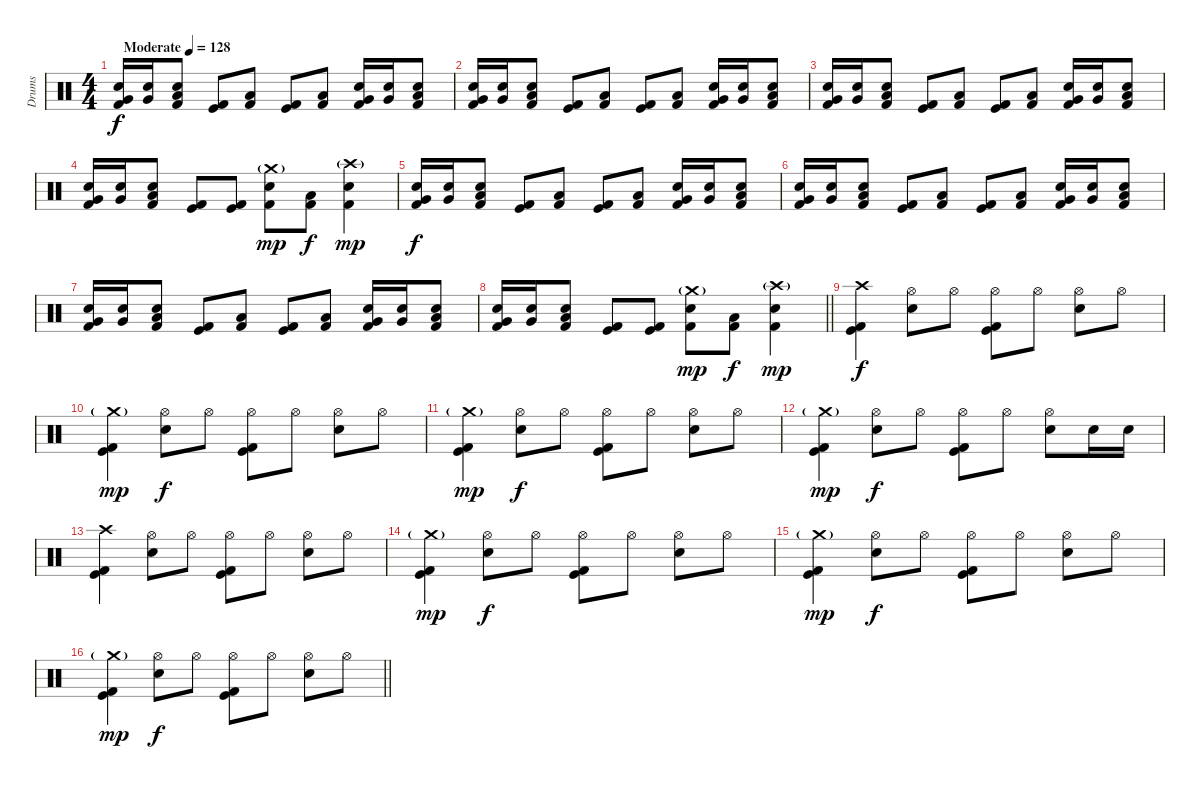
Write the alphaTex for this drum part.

\track ("Drums" "Drums") {instrument percussion}
\staff {score}
\articulation defaults
\ts (4 4)
\tempo (128 "Moderate")
\clef neutral
\ks c
("Kick (hit) 2" "Electric Snare (hit)" "Very Low Tom (hit)").16{dy f} ("Electric Snare (hit)" "Very Low Tom (hit)").16 ("Kick (hit) 2" "Electric Snare (hit)" "Low Floor Tom (hit)").8 ("Kick (hit) 2" "Kick (hit)").8 ("Kick (hit) 2" "Low Floor Tom (hit)").8 ("Kick (hit) 2" "Kick (hit)").8 ("Kick (hit) 2" "Low Floor Tom (hit)").8 ("Kick (hit) 2" "Electric Snare (hit)" "Very Low Tom (hit)").16 ("Electric Snare (hit)" "Very Low Tom (hit)").16 ("Kick (hit) 2" "Electric Snare (hit)" "Low Floor Tom (hit)").8 |
("Kick (hit) 2" "Electric Snare (hit)" "Very Low Tom (hit)").16 ("Electric Snare (hit)" "Very Low Tom (hit)").16 ("Kick (hit) 2" "Electric Snare (hit)" "Low Floor Tom (hit)").8 ("Kick (hit) 2" "Kick (hit)").8 ("Kick (hit) 2" "Low Floor Tom (hit)").8 ("Kick (hit) 2" "Kick (hit)").8 ("Kick (hit) 2" "Low Floor Tom (hit)").8 ("Kick (hit) 2" "Electric Snare (hit)" "Very Low Tom (hit)").16 ("Electric Snare (hit)" "Very Low Tom (hit)").16 ("Kick (hit) 2" "Electric Snare (hit)" "Low Floor Tom (hit)").8 |
("Kick (hit) 2" "Electric Snare (hit)" "Very Low Tom (hit)").16 ("Electric Snare (hit)" "Very Low Tom (hit)").16 ("Kick (hit) 2" "Electric Snare (hit)" "Low Floor Tom (hit)").8 ("Kick (hit) 2" "Kick (hit)").8 ("Kick (hit) 2" "Low Floor Tom (hit)").8 ("Kick (hit) 2" "Kick (hit)").8 ("Kick (hit) 2" "Low Floor Tom (hit)").8 ("Kick (hit) 2" "Electric Snare (hit)" "Very Low Tom (hit)").16 ("Electric Snare (hit)" "Very Low Tom (hit)").16 ("Kick (hit) 2" "Electric Snare (hit)" "Low Floor Tom (hit)").8 |
("Kick (hit) 2" "Electric Snare (hit)" "Very Low Tom (hit)").16 ("Electric Snare (hit)" "Very Low Tom (hit)").16 ("Kick (hit) 2" "Electric Snare (hit)" "Low Floor Tom (hit)").8 ("Kick (hit) 2" "Kick (hit)").8 ("Kick (hit) 2" "Kick (hit)").8 ("Crash medium (hit)"{g} "Kick (hit) 2" "Electric Snare (hit)").8{dy mp} ("Kick (hit) 2" "Low Floor Tom (hit)").8{dy f} ("Crash high (hit)"{g} "Kick (hit) 2" "Electric Snare (hit)").4{dy mp} |
("Kick (hit) 2" "Electric Snare (hit)" "Very Low Tom (hit)").16{dy f} ("Electric Snare (hit)" "Very Low Tom (hit)").16 ("Kick (hit) 2" "Electric Snare (hit)" "Low Floor Tom (hit)").8 ("Kick (hit) 2" "Kick (hit)").8 ("Kick (hit) 2" "Low Floor Tom (hit)").8 ("Kick (hit) 2" "Kick (hit)").8 ("Kick (hit) 2" "Low Floor Tom (hit)").8 ("Kick (hit) 2" "Electric Snare (hit)" "Very Low Tom (hit)").16 ("Electric Snare (hit)" "Very Low Tom (hit)").16 ("Kick (hit) 2" "Electric Snare (hit)" "Low Floor Tom (hit)").8 |
("Kick (hit) 2" "Electric Snare (hit)" "Very Low Tom (hit)").16 ("Electric Snare (hit)" "Very Low Tom (hit)").16 ("Kick (hit) 2" "Electric Snare (hit)" "Low Floor Tom (hit)").8 ("Kick (hit) 2" "Kick (hit)").8 ("Kick (hit) 2" "Low Floor Tom (hit)").8 ("Kick (hit) 2" "Kick (hit)").8 ("Kick (hit) 2" "Low Floor Tom (hit)").8 ("Kick (hit) 2" "Electric Snare (hit)" "Very Low Tom (hit)").16 ("Electric Snare (hit)" "Very Low Tom (hit)").16 ("Kick (hit) 2" "Electric Snare (hit)" "Low Floor Tom (hit)").8 |
("Kick (hit) 2" "Electric Snare (hit)" "Very Low Tom (hit)").16 ("Electric Snare (hit)" "Very Low Tom (hit)").16 ("Kick (hit) 2" "Electric Snare (hit)" "Low Floor Tom (hit)").8 ("Kick (hit) 2" "Kick (hit)").8 ("Kick (hit) 2" "Low Floor Tom (hit)").8 ("Kick (hit) 2" "Kick (hit)").8 ("Kick (hit) 2" "Low Floor Tom (hit)").8 ("Kick (hit) 2" "Electric Snare (hit)" "Very Low Tom (hit)").16 ("Electric Snare (hit)" "Very Low Tom (hit)").16 ("Kick (hit) 2" "Electric Snare (hit)" "Low Floor Tom (hit)").8 |
\barLineRight lightlight
("Kick (hit) 2" "Electric Snare (hit)" "Very Low Tom (hit)").16 ("Electric Snare (hit)" "Very Low Tom (hit)").16 ("Kick (hit) 2" "Electric Snare (hit)" "Low Floor Tom (hit)").8 ("Kick (hit) 2" "Kick (hit)").8 ("Kick (hit) 2" "Kick (hit)").8 ("Crash medium (hit)"{g} "Kick (hit) 2" "Electric Snare (hit)").8{dy mp} ("Kick (hit) 2" "Low Floor Tom (hit)").8{dy f} ("Crash high (hit)"{g} "Kick (hit) 2" "Electric Snare (hit)").4{dy mp} |
\section ("" "")
("Crash high (hit)" "Kick (hit)" "Kick (hit) 2").4{dy f} ("Hi-Hat (open)" "Electric Snare (hit)").8 "Hi-Hat (open)".8 ("Hi-Hat (open)" "Kick (hit)" "Kick (hit) 2").8 "Hi-Hat (open)".8 ("Hi-Hat (open)" "Electric Snare (hit)").8 "Hi-Hat (open)".8 |
("Crash medium (hit)"{g} "Kick (hit)" "Kick (hit) 2").4{dy mp} ("Hi-Hat (open)" "Electric Snare (hit)").8{dy f} "Hi-Hat (open)".8 ("Hi-Hat (open)" "Kick (hit)" "Kick (hit) 2").8 "Hi-Hat (open)".8 ("Hi-Hat (open)" "Electric Snare (hit)").8 "Hi-Hat (open)".8 |
("Crash medium (hit)"{g} "Kick (hit)" "Kick (hit) 2").4{dy mp} ("Hi-Hat (open)" "Electric Snare (hit)").8{dy f} "Hi-Hat (open)".8 ("Hi-Hat (open)" "Kick (hit)" "Kick (hit) 2").8 "Hi-Hat (open)".8 ("Hi-Hat (open)" "Electric Snare (hit)").8 "Hi-Hat (open)".8 |
("Crash medium (hit)"{g} "Kick (hit)" "Kick (hit) 2").4{dy mp} ("Hi-Hat (open)" "Electric Snare (hit)").8{dy f} "Hi-Hat (open)".8 ("Hi-Hat (open)" "Kick (hit)" "Kick (hit) 2").8 "Hi-Hat (open)".8 ("Hi-Hat (open)" "Electric Snare (hit)").8 "Electric Snare (hit)".16 "Electric Snare (hit)".16 |
("Crash high (hit)" "Kick (hit)" "Kick (hit) 2").4 ("Hi-Hat (open)" "Electric Snare (hit)").8 "Hi-Hat (open)".8 ("Hi-Hat (open)" "Kick (hit)" "Kick (hit) 2").8 "Hi-Hat (open)".8 ("Hi-Hat (open)" "Electric Snare (hit)").8 "Hi-Hat (open)".8 |
("Crash medium (hit)"{g} "Kick (hit)" "Kick (hit) 2").4{dy mp} ("Hi-Hat (open)" "Electric Snare (hit)").8{dy f} "Hi-Hat (open)".8 ("Hi-Hat (open)" "Kick (hit)" "Kick (hit) 2").8 "Hi-Hat (open)".8 ("Hi-Hat (open)" "Electric Snare (hit)").8 "Hi-Hat (open)".8 |
("Crash medium (hit)"{g} "Kick (hit)" "Kick (hit) 2").4{dy mp} ("Hi-Hat (open)" "Electric Snare (hit)").8{dy f} "Hi-Hat (open)".8 ("Hi-Hat (open)" "Kick (hit)" "Kick (hit) 2").8 "Hi-Hat (open)".8 ("Hi-Hat (open)" "Electric Snare (hit)").8 "Hi-Hat (open)".8 |
\barLineRight lightlight
("Crash medium (hit)"{g} "Kick (hit)" "Kick (hit) 2").4{dy mp} ("Hi-Hat (open)" "Electric Snare (hit)").8{dy f} "Hi-Hat (open)".8 ("Hi-Hat (open)" "Kick (hit)" "Kick (hit) 2").8 "Hi-Hat (open)".8 ("Hi-Hat (open)" "Electric Snare (hit)").8 "Hi-Hat (open)".8
